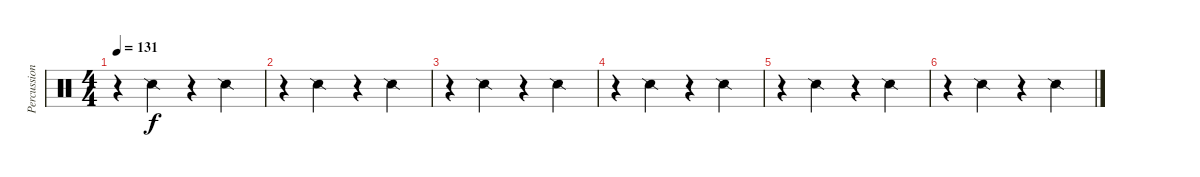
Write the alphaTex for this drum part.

\track ("Percussions" "Percussion") {instrument percussion}
\staff {score}
\articulation defaults
\ts (4 4)
\tempo 131
\clef neutral
\ks c
r.4{dy f} "Snare (side stick) 2".4 r.4 "Snare (side stick) 2".4 |
r.4 "Snare (side stick) 2".4 r.4 "Snare (side stick) 2".4 |
r.4 "Snare (side stick) 2".4 r.4 "Snare (side stick) 2".4 |
r.4 "Snare (side stick) 2".4 r.4 "Snare (side stick) 2".4 |
r.4 "Snare (side stick) 2".4 r.4 "Snare (side stick) 2".4 |
r.4 "Snare (side stick) 2".4 r.4 "Snare (side stick) 2".4
